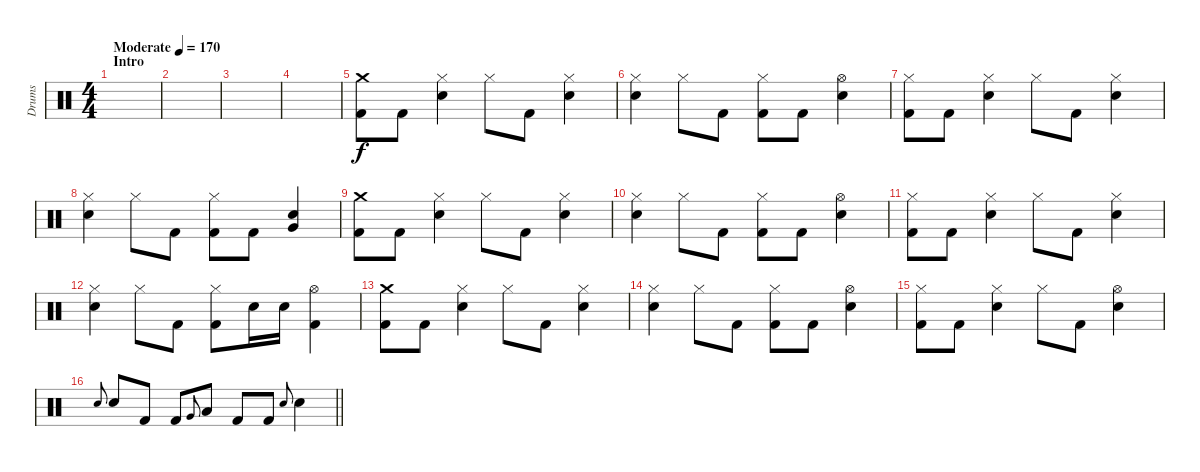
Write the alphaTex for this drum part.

\track ("Drums" "Drums") {instrument percussion}
\staff {score}
\articulation defaults
\ts (4 4)
\section ("" "Intro")
\tempo (170 "Moderate")
\clef neutral
\ks c
|
|
|
|
("Crash medium (hit)" "Kick (hit) 2").8 "Kick (hit) 2".8 ("Hi-Hat (closed)" "Snare (hit) 2").4 "Hi-Hat (closed)".8 "Kick (hit) 2".8 ("Hi-Hat (closed)" "Snare (hit) 2").4 |
("Hi-Hat (closed)" "Snare (hit) 2").4 "Hi-Hat (closed)".8 "Kick (hit) 2".8 ("Hi-Hat (closed)" "Kick (hit) 2").8 "Kick (hit) 2".8 ("Hi-Hat (open)" "Snare (hit) 2").4 |
("Hi-Hat (closed)" "Kick (hit) 2").8 "Kick (hit) 2".8 ("Hi-Hat (closed)" "Snare (hit) 2").4 "Hi-Hat (closed)".8 "Kick (hit) 2".8 ("Hi-Hat (closed)" "Snare (hit) 2").4 |
("Hi-Hat (closed)" "Snare (hit) 2").4 "Hi-Hat (closed)".8 "Kick (hit) 2".8 ("Hi-Hat (closed)" "Kick (hit) 2").8 "Kick (hit) 2".8 ("Snare (hit) 2" "Very Low Tom (hit)").4 |
("Crash medium (hit)" "Kick (hit) 2").8 "Kick (hit) 2".8 ("Hi-Hat (closed)" "Snare (hit) 2").4 "Hi-Hat (closed)".8 "Kick (hit) 2".8 ("Hi-Hat (closed)" "Snare (hit) 2").4 |
("Hi-Hat (closed)" "Snare (hit) 2").4 "Hi-Hat (closed)".8 "Kick (hit) 2".8 ("Hi-Hat (closed)" "Kick (hit) 2").8 "Kick (hit) 2".8 ("Hi-Hat (open)" "Snare (hit) 2").4 |
("Hi-Hat (closed)" "Kick (hit) 2").8 "Kick (hit) 2".8 ("Hi-Hat (closed)" "Snare (hit) 2").4 "Hi-Hat (closed)".8 "Kick (hit) 2".8 ("Hi-Hat (closed)" "Snare (hit) 2").4 |
("Hi-Hat (closed)" "Snare (hit) 2").4 "Hi-Hat (closed)".8 "Kick (hit) 2".8 ("Hi-Hat (closed)" "Kick (hit) 2").8 "Snare (hit) 2".16 "Snare (hit) 2".16 ("Hi-Hat (open)" "Kick (hit) 2").4 |
("Crash medium (hit)" "Kick (hit) 2").8 "Kick (hit) 2".8 ("Hi-Hat (closed)" "Snare (hit) 2").4 "Hi-Hat (closed)".8 "Kick (hit) 2".8 ("Hi-Hat (closed)" "Snare (hit) 2").4 |
("Hi-Hat (closed)" "Snare (hit) 2").4 "Hi-Hat (closed)".8 "Kick (hit) 2".8 ("Hi-Hat (closed)" "Kick (hit) 2").8 "Kick (hit) 2".8 ("Hi-Hat (open)" "Snare (hit) 2").4 |
("Hi-Hat (closed)" "Kick (hit) 2").8 "Kick (hit) 2".8 ("Hi-Hat (closed)" "Snare (hit) 2").4 "Hi-Hat (closed)".8 "Kick (hit) 2".8 ("Hi-Hat (open)" "Snare (hit) 2").4 |
\barLineRight lightlight "Snare (hit) 2".8{gr onbeat} "Snare (hit) 2".8 "Kick (hit) 2".8 "Kick (hit) 2".8 "Very Low Tom (hit)".8{gr onbeat} "Low Tom (hit)".8 "Kick (hit) 2".8 "Kick (hit) 2".8 "Snare (hit) 2".8{gr onbeat} "Snare (hit) 2".4
